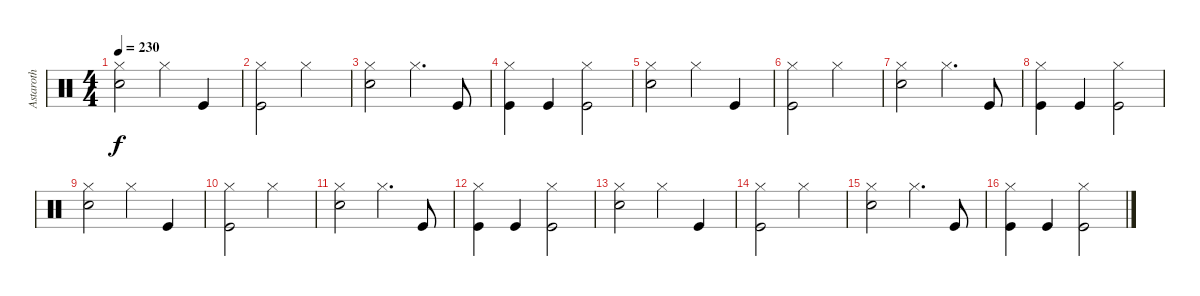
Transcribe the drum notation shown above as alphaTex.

\track ("Astaroth" "Astaroth") {instrument percussion}
\staff {score}
\articulation defaults
\ts (4 4)
\tempo 230
\clef neutral
\ks c
("Electric Snare (hit)" "Hi-Hat (closed)").2{dy f} "Hi-Hat (closed)".4 "Kick (hit)".4 |
("Kick (hit)" "Hi-Hat (closed)").2 "Hi-Hat (closed)".2 |
("Electric Snare (hit)" "Hi-Hat (closed)").2 "Hi-Hat (closed)".4{d} "Kick (hit)".8 |
("Kick (hit)" "Hi-Hat (closed)").4 "Kick (hit)".4 ("Kick (hit)" "Hi-Hat (closed)").2 |
("Electric Snare (hit)" "Hi-Hat (closed)").2 "Hi-Hat (closed)".4 "Kick (hit)".4 |
("Kick (hit)" "Hi-Hat (closed)").2 "Hi-Hat (closed)".2 |
("Electric Snare (hit)" "Hi-Hat (closed)").2 "Hi-Hat (closed)".4{d} "Kick (hit)".8 |
("Kick (hit)" "Hi-Hat (closed)").4 "Kick (hit)".4 ("Kick (hit)" "Hi-Hat (closed)").2 |
("Electric Snare (hit)" "Hi-Hat (closed)").2 "Hi-Hat (closed)".4 "Kick (hit)".4 |
("Kick (hit)" "Hi-Hat (closed)").2 "Hi-Hat (closed)".2 |
("Electric Snare (hit)" "Hi-Hat (closed)").2 "Hi-Hat (closed)".4{d} "Kick (hit)".8 |
("Kick (hit)" "Hi-Hat (closed)").4 "Kick (hit)".4 ("Kick (hit)" "Hi-Hat (closed)").2 |
("Electric Snare (hit)" "Hi-Hat (closed)").2 "Hi-Hat (closed)".4 "Kick (hit)".4 |
("Kick (hit)" "Hi-Hat (closed)").2 "Hi-Hat (closed)".2 |
("Electric Snare (hit)" "Hi-Hat (closed)").2 "Hi-Hat (closed)".4{d} "Kick (hit)".8 |
("Kick (hit)" "Hi-Hat (closed)").4 "Kick (hit)".4 ("Kick (hit)" "Hi-Hat (closed)").2
